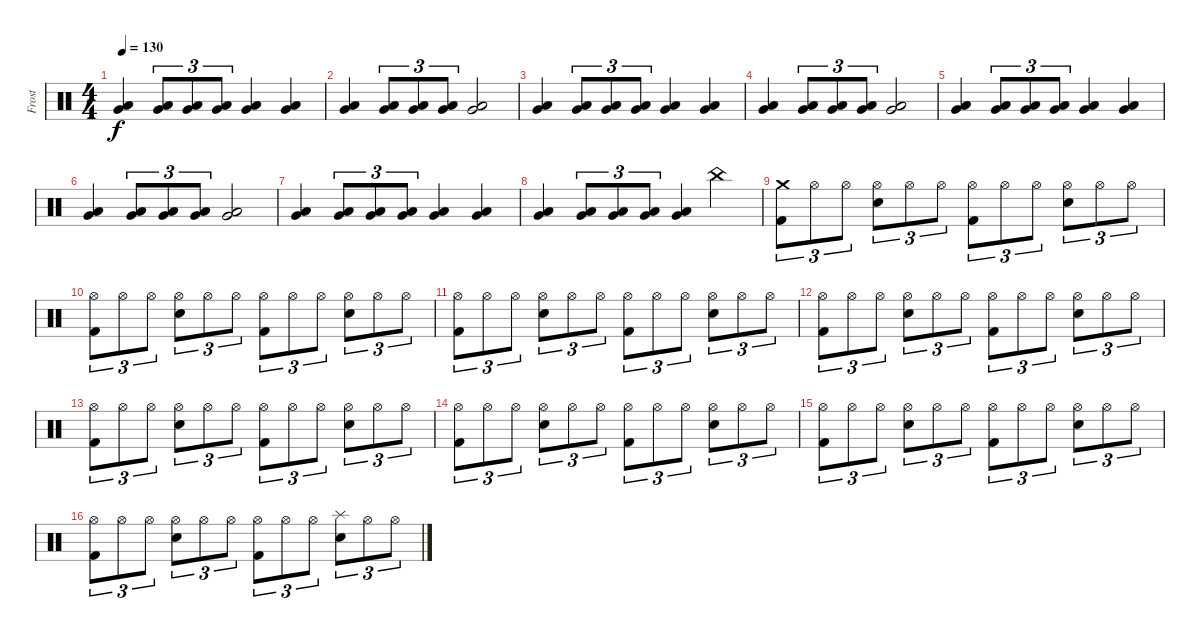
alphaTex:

\track ("Frost" "Frost") {instrument percussion}
\staff {score}
\articulation defaults
\ts (4 4)
\tempo 130
\clef neutral
\ks c
("Very Low Tom (hit)" "Low Floor Tom (hit)").4{dy f} ("Very Low Tom (hit)" "Low Floor Tom (hit)").8{tu (3 2)} ("Very Low Tom (hit)" "Low Floor Tom (hit)").8{tu (3 2)} ("Very Low Tom (hit)" "Low Floor Tom (hit)").8{tu (3 2)} ("Very Low Tom (hit)" "Low Floor Tom (hit)").4 ("Very Low Tom (hit)" "Low Floor Tom (hit)").4 |
("Very Low Tom (hit)" "Low Floor Tom (hit)").4 ("Very Low Tom (hit)" "Low Floor Tom (hit)").8{tu (3 2)} ("Very Low Tom (hit)" "Low Floor Tom (hit)").8{tu (3 2)} ("Very Low Tom (hit)" "Low Floor Tom (hit)").8{tu (3 2)} ("Very Low Tom (hit)" "Low Floor Tom (hit)").2 |
("Very Low Tom (hit)" "Low Floor Tom (hit)").4 ("Very Low Tom (hit)" "Low Floor Tom (hit)").8{tu (3 2)} ("Very Low Tom (hit)" "Low Floor Tom (hit)").8{tu (3 2)} ("Very Low Tom (hit)" "Low Floor Tom (hit)").8{tu (3 2)} ("Very Low Tom (hit)" "Low Floor Tom (hit)").4 ("Very Low Tom (hit)" "Low Floor Tom (hit)").4 |
("Very Low Tom (hit)" "Low Floor Tom (hit)").4 ("Very Low Tom (hit)" "Low Floor Tom (hit)").8{tu (3 2)} ("Very Low Tom (hit)" "Low Floor Tom (hit)").8{tu (3 2)} ("Very Low Tom (hit)" "Low Floor Tom (hit)").8{tu (3 2)} ("Very Low Tom (hit)" "Low Floor Tom (hit)").2 |
("Very Low Tom (hit)" "Low Floor Tom (hit)").4 ("Very Low Tom (hit)" "Low Floor Tom (hit)").8{tu (3 2)} ("Very Low Tom (hit)" "Low Floor Tom (hit)").8{tu (3 2)} ("Very Low Tom (hit)" "Low Floor Tom (hit)").8{tu (3 2)} ("Very Low Tom (hit)" "Low Floor Tom (hit)").4 ("Very Low Tom (hit)" "Low Floor Tom (hit)").4 |
("Very Low Tom (hit)" "Low Floor Tom (hit)").4 ("Very Low Tom (hit)" "Low Floor Tom (hit)").8{tu (3 2)} ("Very Low Tom (hit)" "Low Floor Tom (hit)").8{tu (3 2)} ("Very Low Tom (hit)" "Low Floor Tom (hit)").8{tu (3 2)} ("Very Low Tom (hit)" "Low Floor Tom (hit)").2 |
("Very Low Tom (hit)" "Low Floor Tom (hit)").4 ("Very Low Tom (hit)" "Low Floor Tom (hit)").8{tu (3 2)} ("Very Low Tom (hit)" "Low Floor Tom (hit)").8{tu (3 2)} ("Very Low Tom (hit)" "Low Floor Tom (hit)").8{tu (3 2)} ("Very Low Tom (hit)" "Low Floor Tom (hit)").4 ("Very Low Tom (hit)" "Low Floor Tom (hit)").4 |
("Very Low Tom (hit)" "Low Floor Tom (hit)").4 ("Very Low Tom (hit)" "Low Floor Tom (hit)").8{tu (3 2)} ("Very Low Tom (hit)" "Low Floor Tom (hit)").8{tu (3 2)} ("Very Low Tom (hit)" "Low Floor Tom (hit)").8{tu (3 2)} ("Very Low Tom (hit)" "Low Floor Tom (hit)").4 "China (hit)".4 |
("Crash medium (hit)" "Kick (hit) 2").8{tu (3 2)} "Hi-Hat (open)".8{tu (3 2)} "Hi-Hat (open)".8{tu (3 2)} ("Hi-Hat (open)" "Electric Snare (hit)").8{tu (3 2)} "Hi-Hat (open)".8{tu (3 2)} "Hi-Hat (open)".8{tu (3 2)} ("Hi-Hat (open)" "Kick (hit) 2").8{tu (3 2)} "Hi-Hat (open)".8{tu (3 2)} "Hi-Hat (open)".8{tu (3 2)} ("Hi-Hat (open)" "Electric Snare (hit)").8{tu (3 2)} "Hi-Hat (open)".8{tu (3 2)} "Hi-Hat (open)".8{tu (3 2)} |
("Hi-Hat (open)" "Kick (hit) 2").8{tu (3 2)} "Hi-Hat (open)".8{tu (3 2)} "Hi-Hat (open)".8{tu (3 2)} ("Hi-Hat (open)" "Electric Snare (hit)").8{tu (3 2)} "Hi-Hat (open)".8{tu (3 2)} "Hi-Hat (open)".8{tu (3 2)} ("Hi-Hat (open)" "Kick (hit) 2").8{tu (3 2)} "Hi-Hat (open)".8{tu (3 2)} "Hi-Hat (open)".8{tu (3 2)} ("Hi-Hat (open)" "Electric Snare (hit)").8{tu (3 2)} "Hi-Hat (open)".8{tu (3 2)} "Hi-Hat (open)".8{tu (3 2)} |
("Hi-Hat (open)" "Kick (hit) 2").8{tu (3 2)} "Hi-Hat (open)".8{tu (3 2)} "Hi-Hat (open)".8{tu (3 2)} ("Hi-Hat (open)" "Electric Snare (hit)").8{tu (3 2)} "Hi-Hat (open)".8{tu (3 2)} "Hi-Hat (open)".8{tu (3 2)} ("Hi-Hat (open)" "Kick (hit) 2").8{tu (3 2)} "Hi-Hat (open)".8{tu (3 2)} "Hi-Hat (open)".8{tu (3 2)} ("Hi-Hat (open)" "Electric Snare (hit)").8{tu (3 2)} "Hi-Hat (open)".8{tu (3 2)} "Hi-Hat (open)".8{tu (3 2)} |
("Hi-Hat (open)" "Kick (hit) 2").8{tu (3 2)} "Hi-Hat (open)".8{tu (3 2)} "Hi-Hat (open)".8{tu (3 2)} ("Hi-Hat (open)" "Electric Snare (hit)").8{tu (3 2)} "Hi-Hat (open)".8{tu (3 2)} "Hi-Hat (open)".8{tu (3 2)} ("Hi-Hat (open)" "Kick (hit) 2").8{tu (3 2)} "Hi-Hat (open)".8{tu (3 2)} "Hi-Hat (open)".8{tu (3 2)} ("Hi-Hat (open)" "Electric Snare (hit)").8{tu (3 2)} "Hi-Hat (open)".8{tu (3 2)} "Hi-Hat (open)".8{tu (3 2)} |
("Hi-Hat (open)" "Kick (hit) 2").8{tu (3 2)} "Hi-Hat (open)".8{tu (3 2)} "Hi-Hat (open)".8{tu (3 2)} ("Hi-Hat (open)" "Electric Snare (hit)").8{tu (3 2)} "Hi-Hat (open)".8{tu (3 2)} "Hi-Hat (open)".8{tu (3 2)} ("Hi-Hat (open)" "Kick (hit) 2").8{tu (3 2)} "Hi-Hat (open)".8{tu (3 2)} "Hi-Hat (open)".8{tu (3 2)} ("Hi-Hat (open)" "Electric Snare (hit)").8{tu (3 2)} "Hi-Hat (open)".8{tu (3 2)} "Hi-Hat (open)".8{tu (3 2)} |
("Hi-Hat (open)" "Kick (hit) 2").8{tu (3 2)} "Hi-Hat (open)".8{tu (3 2)} "Hi-Hat (open)".8{tu (3 2)} ("Hi-Hat (open)" "Electric Snare (hit)").8{tu (3 2)} "Hi-Hat (open)".8{tu (3 2)} "Hi-Hat (open)".8{tu (3 2)} ("Hi-Hat (open)" "Kick (hit) 2").8{tu (3 2)} "Hi-Hat (open)".8{tu (3 2)} "Hi-Hat (open)".8{tu (3 2)} ("Hi-Hat (open)" "Electric Snare (hit)").8{tu (3 2)} "Hi-Hat (open)".8{tu (3 2)} "Hi-Hat (open)".8{tu (3 2)} |
("Hi-Hat (open)" "Kick (hit) 2").8{tu (3 2)} "Hi-Hat (open)".8{tu (3 2)} "Hi-Hat (open)".8{tu (3 2)} ("Hi-Hat (open)" "Electric Snare (hit)").8{tu (3 2)} "Hi-Hat (open)".8{tu (3 2)} "Hi-Hat (open)".8{tu (3 2)} ("Hi-Hat (open)" "Kick (hit) 2").8{tu (3 2)} "Hi-Hat (open)".8{tu (3 2)} "Hi-Hat (open)".8{tu (3 2)} ("Hi-Hat (open)" "Electric Snare (hit)").8{tu (3 2)} "Hi-Hat (open)".8{tu (3 2)} "Hi-Hat (open)".8{tu (3 2)} |
("Hi-Hat (open)" "Kick (hit) 2").8{tu (3 2)} "Hi-Hat (open)".8{tu (3 2)} "Hi-Hat (open)".8{tu (3 2)} ("Hi-Hat (open)" "Electric Snare (hit)").8{tu (3 2)} "Hi-Hat (open)".8{tu (3 2)} "Hi-Hat (open)".8{tu (3 2)} ("Hi-Hat (open)" "Kick (hit) 2").8{tu (3 2)} "Hi-Hat (open)".8{tu (3 2)} "Hi-Hat (open)".8{tu (3 2)} ("Splash (hit)" "Electric Snare (hit)").8{tu (3 2)} "Hi-Hat (open)".8{tu (3 2)} "Hi-Hat (open)".8{tu (3 2)}
